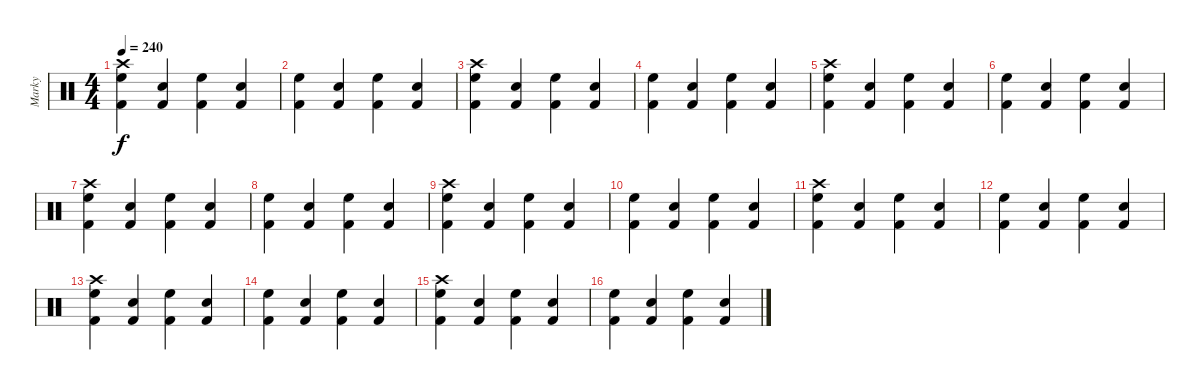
\track ("Marky" "Marky") {instrument percussion}
\staff {score}
\articulation defaults
\ts (4 4)
\tempo 240
\clef neutral
\ks c
("Crash high (hit)" "High Floor Tom (hit)" "Kick (hit) 2").4{dy f} ("Electric Snare (hit)" "Kick (hit) 2").4 ("High Floor Tom (hit)" "Kick (hit) 2").4 ("Electric Snare (hit)" "Kick (hit) 2").4 |
("High Floor Tom (hit)" "Kick (hit) 2").4 ("Electric Snare (hit)" "Kick (hit) 2").4 ("High Floor Tom (hit)" "Kick (hit) 2").4 ("Electric Snare (hit)" "Kick (hit) 2").4 |
("Crash high (hit)" "High Floor Tom (hit)" "Kick (hit) 2").4 ("Electric Snare (hit)" "Kick (hit) 2").4 ("High Floor Tom (hit)" "Kick (hit) 2").4 ("Electric Snare (hit)" "Kick (hit) 2").4 |
("High Floor Tom (hit)" "Kick (hit) 2").4 ("Electric Snare (hit)" "Kick (hit) 2").4 ("High Floor Tom (hit)" "Kick (hit) 2").4 ("Electric Snare (hit)" "Kick (hit) 2").4 |
("Crash high (hit)" "High Floor Tom (hit)" "Kick (hit) 2").4 ("Electric Snare (hit)" "Kick (hit) 2").4 ("High Floor Tom (hit)" "Kick (hit) 2").4 ("Electric Snare (hit)" "Kick (hit) 2").4 |
("High Floor Tom (hit)" "Kick (hit) 2").4 ("Electric Snare (hit)" "Kick (hit) 2").4 ("High Floor Tom (hit)" "Kick (hit) 2").4 ("Electric Snare (hit)" "Kick (hit) 2").4 |
("Crash high (hit)" "High Floor Tom (hit)" "Kick (hit) 2").4 ("Electric Snare (hit)" "Kick (hit) 2").4 ("High Floor Tom (hit)" "Kick (hit) 2").4 ("Electric Snare (hit)" "Kick (hit) 2").4 |
("High Floor Tom (hit)" "Kick (hit) 2").4 ("Electric Snare (hit)" "Kick (hit) 2").4 ("High Floor Tom (hit)" "Kick (hit) 2").4 ("Electric Snare (hit)" "Kick (hit) 2").4 |
("Crash high (hit)" "High Floor Tom (hit)" "Kick (hit) 2").4 ("Electric Snare (hit)" "Kick (hit) 2").4 ("High Floor Tom (hit)" "Kick (hit) 2").4 ("Electric Snare (hit)" "Kick (hit) 2").4 |
("High Floor Tom (hit)" "Kick (hit) 2").4 ("Electric Snare (hit)" "Kick (hit) 2").4 ("High Floor Tom (hit)" "Kick (hit) 2").4 ("Electric Snare (hit)" "Kick (hit) 2").4 |
("Crash high (hit)" "High Floor Tom (hit)" "Kick (hit) 2").4 ("Electric Snare (hit)" "Kick (hit) 2").4 ("High Floor Tom (hit)" "Kick (hit) 2").4 ("Electric Snare (hit)" "Kick (hit) 2").4 |
("High Floor Tom (hit)" "Kick (hit) 2").4 ("Electric Snare (hit)" "Kick (hit) 2").4 ("High Floor Tom (hit)" "Kick (hit) 2").4 ("Electric Snare (hit)" "Kick (hit) 2").4 |
("Crash high (hit)" "High Floor Tom (hit)" "Kick (hit) 2").4 ("Electric Snare (hit)" "Kick (hit) 2").4 ("High Floor Tom (hit)" "Kick (hit) 2").4 ("Electric Snare (hit)" "Kick (hit) 2").4 |
("High Floor Tom (hit)" "Kick (hit) 2").4 ("Electric Snare (hit)" "Kick (hit) 2").4 ("High Floor Tom (hit)" "Kick (hit) 2").4 ("Electric Snare (hit)" "Kick (hit) 2").4 |
("Crash high (hit)" "High Floor Tom (hit)" "Kick (hit) 2").4 ("Electric Snare (hit)" "Kick (hit) 2").4 ("High Floor Tom (hit)" "Kick (hit) 2").4 ("Electric Snare (hit)" "Kick (hit) 2").4 |
("High Floor Tom (hit)" "Kick (hit) 2").4 ("Electric Snare (hit)" "Kick (hit) 2").4 ("High Floor Tom (hit)" "Kick (hit) 2").4 ("Electric Snare (hit)" "Kick (hit) 2").4
